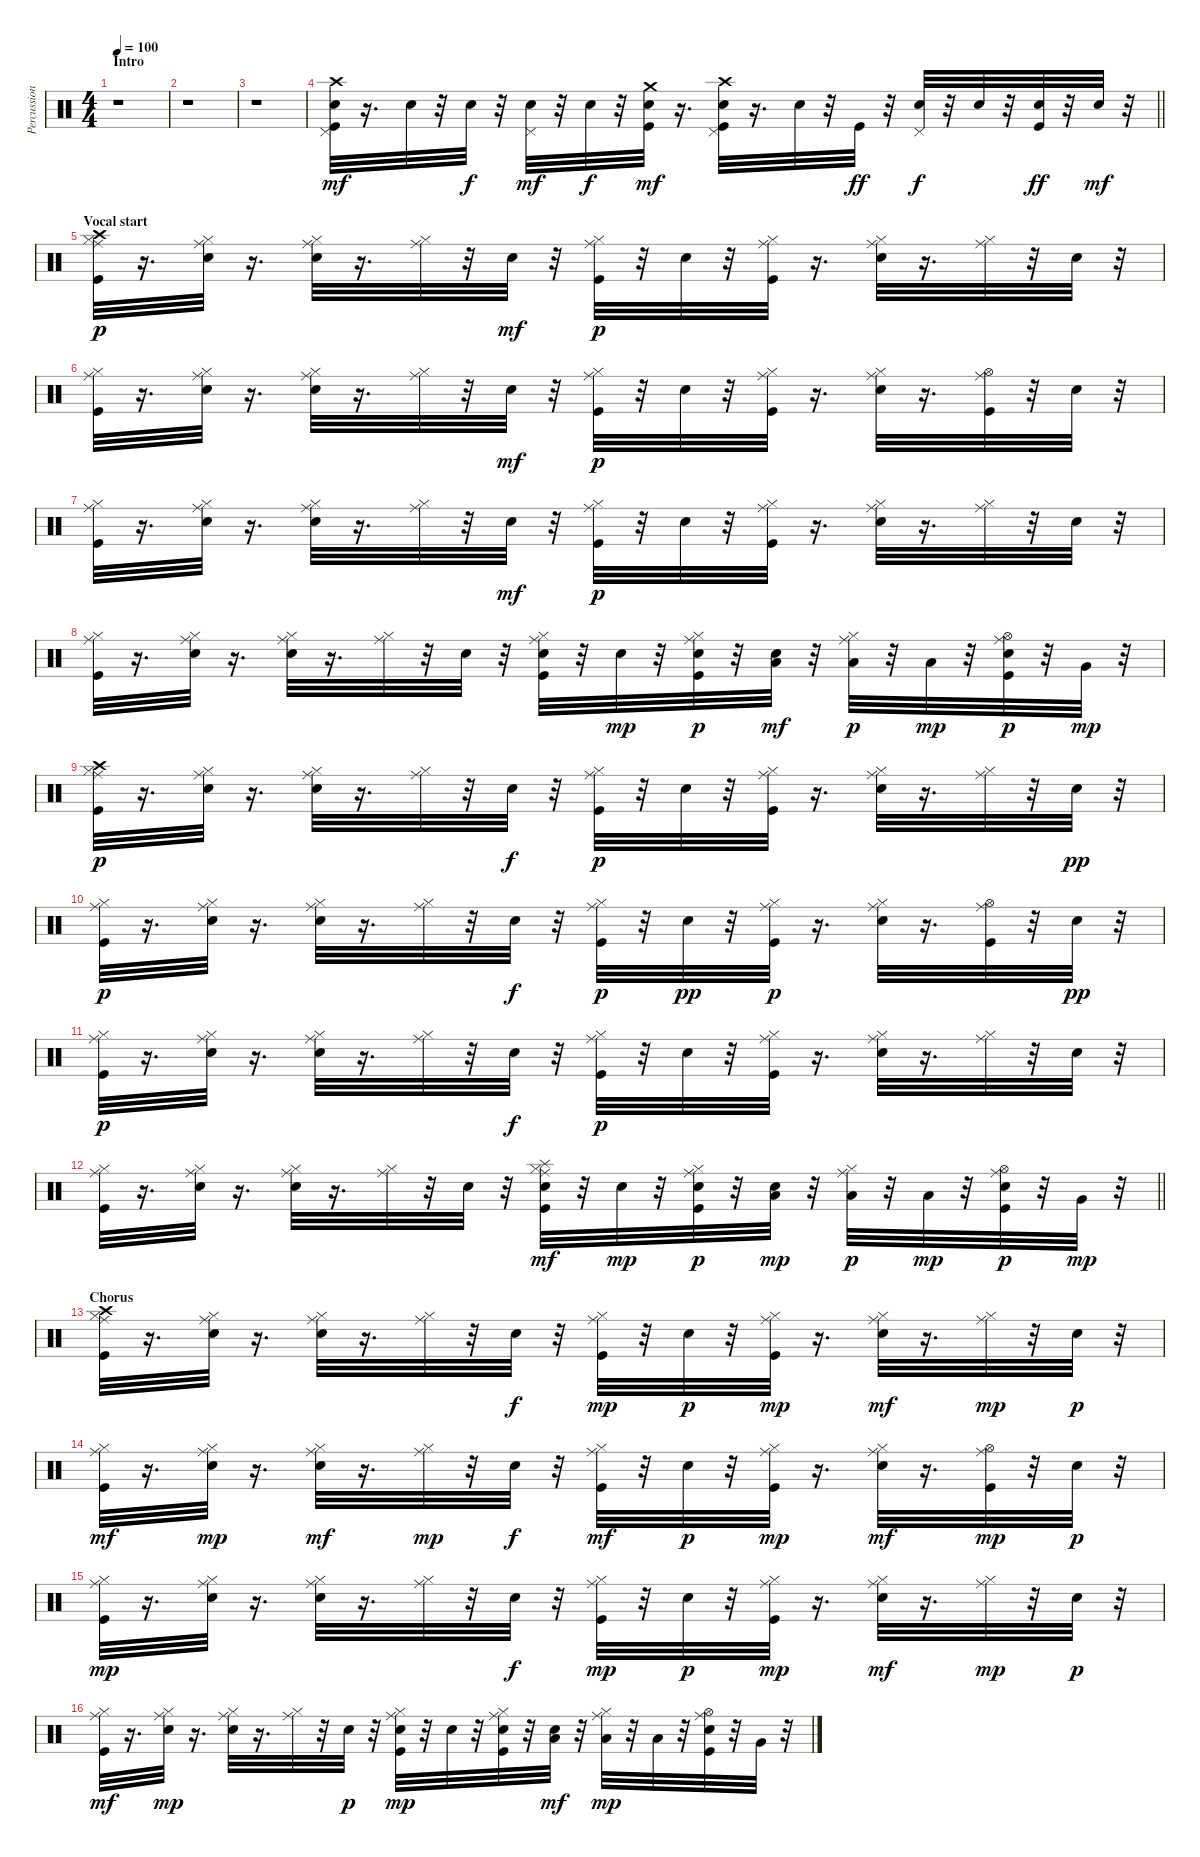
\track ("Percussions" "Percussion") {instrument percussion}
\staff {score}
\articulation defaults
\ts (4 4)
\section ("" "Intro")
\tempo 100
\clef neutral
\ks c
r.1{dy mf} |
r.1 |
r.1 |
\barLineRight lightlight
("Kick (hit)" "Electric Snare (hit)" "Pedal Hi-Hat (hit)" "Crash high (hit)").32 r.16{d} "Electric Snare (hit)".32 r.32 "Electric Snare (hit)".32{dy f} r.32 ("Electric Snare (hit)" "Pedal Hi-Hat (hit)").32{dy mf} r.32 "Electric Snare (hit)".32{dy f} r.32 ("Kick (hit)" "Electric Snare (hit)" "Crash medium (hit)").32{dy mf} r.16{d} ("Kick (hit)" "Electric Snare (hit)" "Pedal Hi-Hat (hit)" "Crash high (hit)").32 r.16{d} "Electric Snare (hit)".32 r.32 "Kick (hit)".32{dy ff} r.32 ("Electric Snare (hit)" "Pedal Hi-Hat (hit)").32{dy f} r.32 "Electric Snare (hit)".32 r.32 ("Kick (hit)" "Electric Snare (hit)").32{dy ff} r.32 "Electric Snare (hit)".32{dy mf} r.32 |
\section ("" "Vocal start")
("Kick (hit)" "Hi-Hat (closed)" "Crash high (hit)" "Ride (middle)").32{dy p} r.16{d} ("Electric Snare (hit)" "Hi-Hat (closed)" "Ride (middle)").32 r.16{d} ("Electric Snare (hit)" "Hi-Hat (closed)" "Ride (middle)").32 r.16{d} ("Hi-Hat (closed)" "Ride (middle)").32 r.32 "Electric Snare (hit)".32{dy mf} r.32 ("Kick (hit)" "Hi-Hat (closed)" "Ride (middle)").32{dy p} r.32 "Electric Snare (hit)".32 r.32 ("Kick (hit)" "Hi-Hat (closed)" "Ride (middle)").32 r.16{d} ("Electric Snare (hit)" "Hi-Hat (closed)" "Ride (middle)").32 r.16{d} ("Hi-Hat (closed)" "Ride (middle)").32 r.32 "Electric Snare (hit)".32 r.32 |
("Kick (hit)" "Hi-Hat (closed)" "Ride (middle)").32 r.16{d} ("Electric Snare (hit)" "Hi-Hat (closed)" "Ride (middle)").32 r.16{d} ("Electric Snare (hit)" "Hi-Hat (closed)" "Ride (middle)").32 r.16{d} ("Hi-Hat (closed)" "Ride (middle)").32 r.32 "Electric Snare (hit)".32{dy mf} r.32 ("Kick (hit)" "Hi-Hat (closed)" "Ride (middle)").32{dy p} r.32 "Electric Snare (hit)".32 r.32 ("Kick (hit)" "Hi-Hat (closed)" "Ride (middle)").32 r.16{d} ("Electric Snare (hit)" "Hi-Hat (closed)" "Ride (middle)").32 r.16{d} ("Kick (hit)" "Hi-Hat (open)" "Ride (middle)").32 r.32 "Electric Snare (hit)".32 r.32 |
("Kick (hit)" "Hi-Hat (closed)" "Ride (middle)").32 r.16{d} ("Electric Snare (hit)" "Hi-Hat (closed)" "Ride (middle)").32 r.16{d} ("Electric Snare (hit)" "Hi-Hat (closed)" "Ride (middle)").32 r.16{d} ("Hi-Hat (closed)" "Ride (middle)").32 r.32 "Electric Snare (hit)".32{dy mf} r.32 ("Kick (hit)" "Hi-Hat (closed)" "Ride (middle)").32{dy p} r.32 "Electric Snare (hit)".32 r.32 ("Kick (hit)" "Hi-Hat (closed)" "Ride (middle)").32 r.16{d} ("Electric Snare (hit)" "Hi-Hat (closed)" "Ride (middle)").32 r.16{d} ("Hi-Hat (closed)" "Ride (middle)").32 r.32 "Electric Snare (hit)".32 r.32 |
("Kick (hit)" "Hi-Hat (closed)" "Ride (middle)").32 r.16{d} ("Electric Snare (hit)" "Hi-Hat (closed)" "Ride (middle)").32 r.16{d} ("Electric Snare (hit)" "Hi-Hat (closed)" "Ride (middle)").32 r.16{d} ("Hi-Hat (closed)" "Ride (middle)").32 r.32 "Electric Snare (hit)".32 r.32 ("Kick (hit)" "Electric Snare (hit)" "Hi-Hat (closed)" "Ride (middle)").32 r.32 "Electric Snare (hit)".32{dy mp} r.32 ("Kick (hit)" "Electric Snare (hit)" "Hi-Hat (closed)" "Ride (middle)").32{dy p} r.32 ("Electric Snare (hit)" "Low Tom (hit)").32{dy mf} r.32 ("Hi-Hat (closed)" "Low Tom (hit)" "Ride (middle)").32{dy p} r.32 "Low Tom (hit)".32{dy mp} r.32 ("Kick (hit)" "Electric Snare (hit)" "Hi-Hat (open)" "Ride (middle)").32{dy p} r.32 "Very Low Tom (hit)".32{dy mp} r.32 |
("Kick (hit)" "Hi-Hat (closed)" "Crash high (hit)" "Ride (middle)").32{dy p} r.16{d} ("Electric Snare (hit)" "Hi-Hat (closed)" "Ride (middle)").32 r.16{d} ("Electric Snare (hit)" "Hi-Hat (closed)" "Ride (middle)").32 r.16{d} ("Hi-Hat (closed)" "Ride (middle)").32 r.32 "Electric Snare (hit)".32{dy f} r.32 ("Kick (hit)" "Hi-Hat (closed)" "Ride (middle)").32{dy p} r.32 "Electric Snare (hit)".32 r.32 ("Kick (hit)" "Hi-Hat (closed)" "Ride (middle)").32 r.16{d} ("Electric Snare (hit)" "Hi-Hat (closed)" "Ride (middle)").32 r.16{d} ("Hi-Hat (closed)" "Ride (middle)").32 r.32 "Electric Snare (hit)".32{dy pp} r.32 |
("Kick (hit)" "Hi-Hat (closed)" "Ride (middle)").32{dy p} r.16{d} ("Electric Snare (hit)" "Hi-Hat (closed)" "Ride (middle)").32 r.16{d} ("Electric Snare (hit)" "Hi-Hat (closed)" "Ride (middle)").32 r.16{d} ("Hi-Hat (closed)" "Ride (middle)").32 r.32 "Electric Snare (hit)".32{dy f} r.32 ("Kick (hit)" "Hi-Hat (closed)" "Ride (middle)").32{dy p} r.32 "Electric Snare (hit)".32{dy pp} r.32 ("Kick (hit)" "Hi-Hat (closed)" "Ride (middle)").32{dy p} r.16{d} ("Electric Snare (hit)" "Hi-Hat (closed)" "Ride (middle)").32 r.16{d} ("Kick (hit)" "Hi-Hat (open)" "Ride (middle)").32 r.32 "Electric Snare (hit)".32{dy pp} r.32 |
("Kick (hit)" "Hi-Hat (closed)" "Ride (middle)").32{dy p} r.16{d} ("Electric Snare (hit)" "Hi-Hat (closed)" "Ride (middle)").32 r.16{d} ("Electric Snare (hit)" "Hi-Hat (closed)" "Ride (middle)").32 r.16{d} ("Hi-Hat (closed)" "Ride (middle)").32 r.32 "Electric Snare (hit)".32{dy f} r.32 ("Kick (hit)" "Hi-Hat (closed)" "Ride (middle)").32{dy p} r.32 "Electric Snare (hit)".32 r.32 ("Kick (hit)" "Hi-Hat (closed)" "Ride (middle)").32 r.16{d} ("Electric Snare (hit)" "Hi-Hat (closed)" "Ride (middle)").32 r.16{d} ("Hi-Hat (closed)" "Ride (middle)").32 r.32 "Electric Snare (hit)".32 r.32 |
\barLineRight lightlight
("Kick (hit)" "Hi-Hat (closed)" "Ride (middle)").32 r.16{d} ("Electric Snare (hit)" "Hi-Hat (closed)" "Ride (middle)").32 r.16{d} ("Electric Snare (hit)" "Hi-Hat (closed)" "Ride (middle)").32 r.16{d} ("Hi-Hat (closed)" "Ride (middle)").32 r.32 "Electric Snare (hit)".32 r.32 ("Kick (hit)" "Electric Snare (hit)" "Hi-Hat (closed)" "Ride (middle)" "Splash (hit)").32{dy mf} r.32 "Electric Snare (hit)".32{dy mp} r.32 ("Kick (hit)" "Electric Snare (hit)" "Hi-Hat (closed)" "Ride (middle)").32{dy p} r.32 ("Electric Snare (hit)" "Low Tom (hit)").32{dy mp} r.32 ("Hi-Hat (closed)" "Low Tom (hit)" "Ride (middle)").32{dy p} r.32 "Low Tom (hit)".32{dy mp} r.32 ("Kick (hit)" "Electric Snare (hit)" "Hi-Hat (open)" "Ride (middle)").32{dy p} r.32 "Very Low Tom (hit)".32{dy mp} r.32 |
\section ("" "Chorus")
("Kick (hit)" "Hi-Hat (closed)" "Crash high (hit)" "Ride (middle)").32 r.16{d} ("Electric Snare (hit)" "Hi-Hat (closed)" "Ride (middle)").32 r.16{d} ("Electric Snare (hit)" "Hi-Hat (closed)" "Ride (middle)").32 r.16{d} ("Hi-Hat (closed)" "Ride (middle)").32 r.32 "Electric Snare (hit)".32{dy f} r.32 ("Kick (hit)" "Hi-Hat (closed)" "Ride (middle)").32{dy mp} r.32 "Electric Snare (hit)".32{dy p} r.32 ("Kick (hit)" "Hi-Hat (closed)" "Ride (middle)").32{dy mp} r.16{d} ("Electric Snare (hit)" "Hi-Hat (closed)" "Ride (middle)").32{dy mf} r.16{d} ("Hi-Hat (closed)" "Ride (middle)").32{dy mp} r.32 "Electric Snare (hit)".32{dy p} r.32 |
("Kick (hit)" "Hi-Hat (closed)" "Ride (middle)").32{dy mf} r.16{d} ("Electric Snare (hit)" "Hi-Hat (closed)" "Ride (middle)").32{dy mp} r.16{d} ("Electric Snare (hit)" "Hi-Hat (closed)" "Ride (middle)").32{dy mf} r.16{d} ("Hi-Hat (closed)" "Ride (middle)").32{dy mp} r.32 "Electric Snare (hit)".32{dy f} r.32 ("Kick (hit)" "Hi-Hat (closed)" "Ride (middle)").32{dy mf} r.32 "Electric Snare (hit)".32{dy p} r.32 ("Kick (hit)" "Hi-Hat (closed)" "Ride (middle)").32{dy mp} r.16{d} ("Electric Snare (hit)" "Hi-Hat (closed)" "Ride (middle)").32{dy mf} r.16{d} ("Kick (hit)" "Hi-Hat (open)" "Ride (middle)").32{dy mp} r.32 "Electric Snare (hit)".32{dy p} r.32 |
("Kick (hit)" "Hi-Hat (closed)" "Ride (middle)").32{dy mp} r.16{d} ("Electric Snare (hit)" "Hi-Hat (closed)" "Ride (middle)").32 r.16{d} ("Electric Snare (hit)" "Hi-Hat (closed)" "Ride (middle)").32 r.16{d} ("Hi-Hat (closed)" "Ride (middle)").32 r.32 "Electric Snare (hit)".32{dy f} r.32 ("Kick (hit)" "Hi-Hat (closed)" "Ride (middle)").32{dy mp} r.32 "Electric Snare (hit)".32{dy p} r.32 ("Kick (hit)" "Hi-Hat (closed)" "Ride (middle)").32{dy mp} r.16{d} ("Electric Snare (hit)" "Hi-Hat (closed)" "Ride (middle)").32{dy mf} r.16{d} ("Hi-Hat (closed)" "Ride (middle)").32{dy mp} r.32 "Electric Snare (hit)".32{dy p} r.32 |
("Kick (hit)" "Hi-Hat (closed)" "Ride (middle)").32{dy mf} r.16{d} ("Electric Snare (hit)" "Hi-Hat (closed)" "Ride (middle)").32{dy mp} r.16{d} ("Electric Snare (hit)" "Hi-Hat (closed)" "Ride (middle)").32 r.16{d} ("Hi-Hat (closed)" "Ride (middle)").32 r.32 "Electric Snare (hit)".32{dy p} r.32 ("Kick (hit)" "Electric Snare (hit)" "Hi-Hat (closed)" "Ride (middle)").32{dy mp} r.32 "Electric Snare (hit)".32 r.32 ("Kick (hit)" "Electric Snare (hit)" "Hi-Hat (closed)" "Ride (middle)").32 r.32 ("Electric Snare (hit)" "Low Tom (hit)").32{dy mf} r.32 ("Hi-Hat (closed)" "Low Tom (hit)" "Ride (middle)").32{dy mp} r.32 "Low Tom (hit)".32 r.32 ("Kick (hit)" "Electric Snare (hit)" "Hi-Hat (open)" "Ride (middle)").32 r.32 "Very Low Tom (hit)".32 r.32
